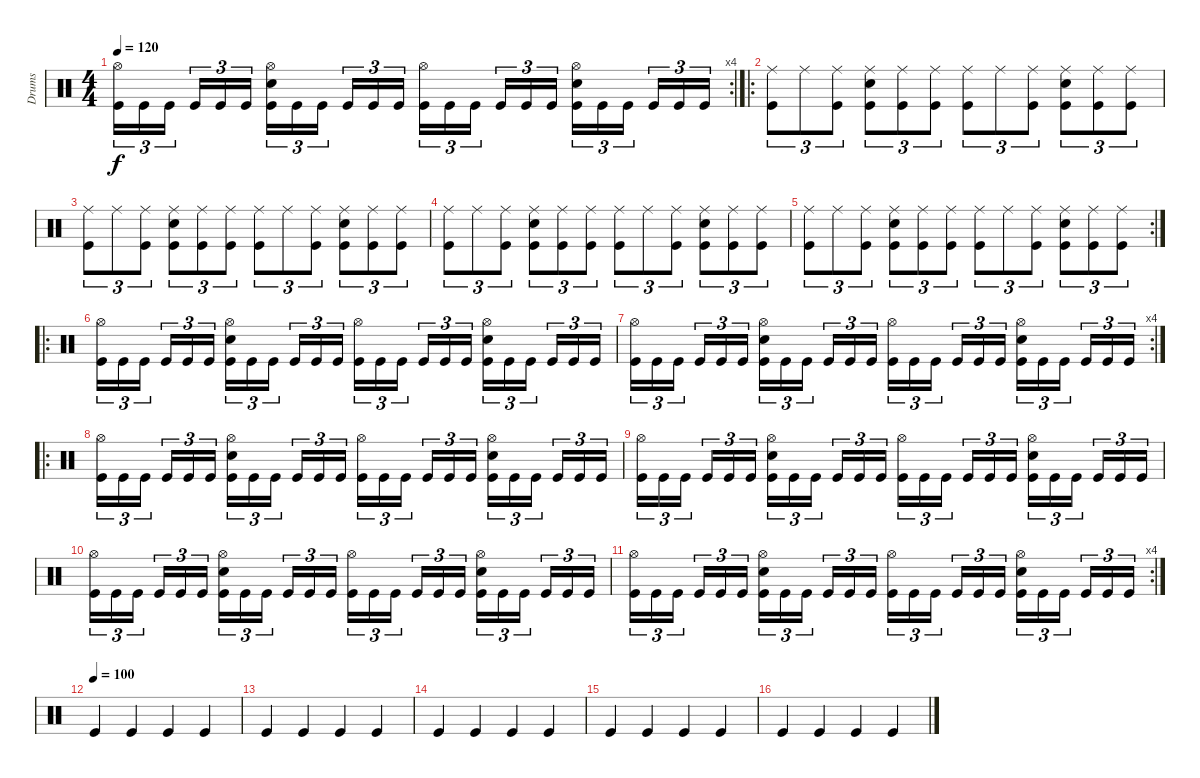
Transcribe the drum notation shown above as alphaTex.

\track ("Drums" "Drums") {instrument percussion}
\staff {score}
\articulation defaults
\rc 4
\ts (4 4)
\tempo 120
\clef neutral
\ks c
("Hi-Hat (open)" "Kick (hit)").16{tu (3 2) dy f} "Kick (hit)".16{tu (3 2)} "Kick (hit)".16{tu (3 2) beam splitsecondary} "Kick (hit)".16{tu (3 2)} "Kick (hit)".16{tu (3 2)} "Kick (hit)".16{tu (3 2)} ("Snare (hit) 2" "Hi-Hat (open)" "Kick (hit)").16{tu (3 2)} "Kick (hit)".16{tu (3 2)} "Kick (hit)".16{tu (3 2) beam splitsecondary} "Kick (hit)".16{tu (3 2)} "Kick (hit)".16{tu (3 2)} "Kick (hit)".16{tu (3 2)} ("Hi-Hat (open)" "Kick (hit)").16{tu (3 2)} "Kick (hit)".16{tu (3 2)} "Kick (hit)".16{tu (3 2) beam splitsecondary} "Kick (hit)".16{tu (3 2)} "Kick (hit)".16{tu (3 2)} "Kick (hit)".16{tu (3 2)} ("Snare (hit) 2" "Hi-Hat (open)" "Kick (hit)").16{tu (3 2)} "Kick (hit)".16{tu (3 2)} "Kick (hit)".16{tu (3 2) beam splitsecondary} "Kick (hit)".16{tu (3 2)} "Kick (hit)".16{tu (3 2)} "Kick (hit)".16{tu (3 2)} |
\ro
("Kick (hit)" "Ride (middle)").8{tu (3 2)} "Ride (middle)".8{tu (3 2)} ("Kick (hit)" "Ride (middle)").8{tu (3 2)} ("Snare (hit) 2" "Kick (hit)" "Ride (middle)").8{tu (3 2)} ("Kick (hit)" "Ride (middle)").8{tu (3 2)} ("Kick (hit)" "Ride (middle)").8{tu (3 2)} ("Kick (hit)" "Ride (middle)").8{tu (3 2)} "Ride (middle)".8{tu (3 2)} ("Kick (hit)" "Ride (middle)").8{tu (3 2)} ("Snare (hit) 2" "Kick (hit)" "Ride (middle)").8{tu (3 2)} ("Kick (hit)" "Ride (middle)").8{tu (3 2)} ("Kick (hit)" "Ride (middle)").8{tu (3 2)} |
("Kick (hit)" "Ride (middle)").8{tu (3 2)} "Ride (middle)".8{tu (3 2)} ("Kick (hit)" "Ride (middle)").8{tu (3 2)} ("Snare (hit) 2" "Kick (hit)" "Ride (middle)").8{tu (3 2)} ("Kick (hit)" "Ride (middle)").8{tu (3 2)} ("Kick (hit)" "Ride (middle)").8{tu (3 2)} ("Kick (hit)" "Ride (middle)").8{tu (3 2)} "Ride (middle)".8{tu (3 2)} ("Kick (hit)" "Ride (middle)").8{tu (3 2)} ("Snare (hit) 2" "Kick (hit)" "Ride (middle)").8{tu (3 2)} ("Kick (hit)" "Ride (middle)").8{tu (3 2)} ("Kick (hit)" "Ride (middle)").8{tu (3 2)} |
("Kick (hit)" "Ride (middle)").8{tu (3 2)} "Ride (middle)".8{tu (3 2)} ("Kick (hit)" "Ride (middle)").8{tu (3 2)} ("Snare (hit) 2" "Kick (hit)" "Ride (middle)").8{tu (3 2)} ("Kick (hit)" "Ride (middle)").8{tu (3 2)} ("Kick (hit)" "Ride (middle)").8{tu (3 2)} ("Kick (hit)" "Ride (middle)").8{tu (3 2)} "Ride (middle)".8{tu (3 2)} ("Kick (hit)" "Ride (middle)").8{tu (3 2)} ("Snare (hit) 2" "Kick (hit)" "Ride (middle)").8{tu (3 2)} ("Kick (hit)" "Ride (middle)").8{tu (3 2)} ("Kick (hit)" "Ride (middle)").8{tu (3 2)} |
\rc 2
("Kick (hit)" "Ride (middle)").8{tu (3 2)} "Ride (middle)".8{tu (3 2)} ("Kick (hit)" "Ride (middle)").8{tu (3 2)} ("Snare (hit) 2" "Kick (hit)" "Ride (middle)").8{tu (3 2)} ("Kick (hit)" "Ride (middle)").8{tu (3 2)} ("Kick (hit)" "Ride (middle)").8{tu (3 2)} ("Kick (hit)" "Ride (middle)").8{tu (3 2)} "Ride (middle)".8{tu (3 2)} ("Kick (hit)" "Ride (middle)").8{tu (3 2)} ("Snare (hit) 2" "Kick (hit)" "Ride (middle)").8{tu (3 2)} ("Kick (hit)" "Ride (middle)").8{tu (3 2)} ("Kick (hit)" "Ride (middle)").8{tu (3 2)} |
\ro
("Hi-Hat (open)" "Kick (hit)").16{tu (3 2)} "Kick (hit)".16{tu (3 2)} "Kick (hit)".16{tu (3 2) beam splitsecondary} "Kick (hit)".16{tu (3 2)} "Kick (hit)".16{tu (3 2)} "Kick (hit)".16{tu (3 2)} ("Snare (hit) 2" "Hi-Hat (open)" "Kick (hit)").16{tu (3 2)} "Kick (hit)".16{tu (3 2)} "Kick (hit)".16{tu (3 2) beam splitsecondary} "Kick (hit)".16{tu (3 2)} "Kick (hit)".16{tu (3 2)} "Kick (hit)".16{tu (3 2)} ("Hi-Hat (open)" "Kick (hit)").16{tu (3 2)} "Kick (hit)".16{tu (3 2)} "Kick (hit)".16{tu (3 2) beam splitsecondary} "Kick (hit)".16{tu (3 2)} "Kick (hit)".16{tu (3 2)} "Kick (hit)".16{tu (3 2)} ("Snare (hit) 2" "Hi-Hat (open)" "Kick (hit)").16{tu (3 2)} "Kick (hit)".16{tu (3 2)} "Kick (hit)".16{tu (3 2) beam splitsecondary} "Kick (hit)".16{tu (3 2)} "Kick (hit)".16{tu (3 2)} "Kick (hit)".16{tu (3 2)} |
\rc 4
("Hi-Hat (open)" "Kick (hit)").16{tu (3 2)} "Kick (hit)".16{tu (3 2)} "Kick (hit)".16{tu (3 2) beam splitsecondary} "Kick (hit)".16{tu (3 2)} "Kick (hit)".16{tu (3 2)} "Kick (hit)".16{tu (3 2)} ("Snare (hit) 2" "Hi-Hat (open)" "Kick (hit)").16{tu (3 2)} "Kick (hit)".16{tu (3 2)} "Kick (hit)".16{tu (3 2) beam splitsecondary} "Kick (hit)".16{tu (3 2)} "Kick (hit)".16{tu (3 2)} "Kick (hit)".16{tu (3 2)} ("Hi-Hat (open)" "Kick (hit)").16{tu (3 2)} "Kick (hit)".16{tu (3 2)} "Kick (hit)".16{tu (3 2) beam splitsecondary} "Kick (hit)".16{tu (3 2)} "Kick (hit)".16{tu (3 2)} "Kick (hit)".16{tu (3 2)} ("Snare (hit) 2" "Hi-Hat (open)" "Kick (hit)").16{tu (3 2)} "Kick (hit)".16{tu (3 2)} "Kick (hit)".16{tu (3 2) beam splitsecondary} "Kick (hit)".16{tu (3 2)} "Kick (hit)".16{tu (3 2)} "Kick (hit)".16{tu (3 2)} |
\ro
("Hi-Hat (open)" "Kick (hit)").16{tu (3 2)} "Kick (hit)".16{tu (3 2)} "Kick (hit)".16{tu (3 2) beam splitsecondary} "Kick (hit)".16{tu (3 2)} "Kick (hit)".16{tu (3 2)} "Kick (hit)".16{tu (3 2)} ("Snare (hit) 2" "Hi-Hat (open)" "Kick (hit)").16{tu (3 2)} "Kick (hit)".16{tu (3 2)} "Kick (hit)".16{tu (3 2) beam splitsecondary} "Kick (hit)".16{tu (3 2)} "Kick (hit)".16{tu (3 2)} "Kick (hit)".16{tu (3 2)} ("Hi-Hat (open)" "Kick (hit)").16{tu (3 2)} "Kick (hit)".16{tu (3 2)} "Kick (hit)".16{tu (3 2) beam splitsecondary} "Kick (hit)".16{tu (3 2)} "Kick (hit)".16{tu (3 2)} "Kick (hit)".16{tu (3 2)} ("Snare (hit) 2" "Hi-Hat (open)" "Kick (hit)").16{tu (3 2)} "Kick (hit)".16{tu (3 2)} "Kick (hit)".16{tu (3 2) beam splitsecondary} "Kick (hit)".16{tu (3 2)} "Kick (hit)".16{tu (3 2)} "Kick (hit)".16{tu (3 2)} |
("Hi-Hat (open)" "Kick (hit)").16{tu (3 2)} "Kick (hit)".16{tu (3 2)} "Kick (hit)".16{tu (3 2) beam splitsecondary} "Kick (hit)".16{tu (3 2)} "Kick (hit)".16{tu (3 2)} "Kick (hit)".16{tu (3 2)} ("Snare (hit) 2" "Hi-Hat (open)" "Kick (hit)").16{tu (3 2)} "Kick (hit)".16{tu (3 2)} "Kick (hit)".16{tu (3 2) beam splitsecondary} "Kick (hit)".16{tu (3 2)} "Kick (hit)".16{tu (3 2)} "Kick (hit)".16{tu (3 2)} ("Hi-Hat (open)" "Kick (hit)").16{tu (3 2)} "Kick (hit)".16{tu (3 2)} "Kick (hit)".16{tu (3 2) beam splitsecondary} "Kick (hit)".16{tu (3 2)} "Kick (hit)".16{tu (3 2)} "Kick (hit)".16{tu (3 2)} ("Snare (hit) 2" "Hi-Hat (open)" "Kick (hit)").16{tu (3 2)} "Kick (hit)".16{tu (3 2)} "Kick (hit)".16{tu (3 2) beam splitsecondary} "Kick (hit)".16{tu (3 2)} "Kick (hit)".16{tu (3 2)} "Kick (hit)".16{tu (3 2)} |
("Hi-Hat (open)" "Kick (hit)").16{tu (3 2)} "Kick (hit)".16{tu (3 2)} "Kick (hit)".16{tu (3 2) beam splitsecondary} "Kick (hit)".16{tu (3 2)} "Kick (hit)".16{tu (3 2)} "Kick (hit)".16{tu (3 2)} ("Snare (hit) 2" "Hi-Hat (open)" "Kick (hit)").16{tu (3 2)} "Kick (hit)".16{tu (3 2)} "Kick (hit)".16{tu (3 2) beam splitsecondary} "Kick (hit)".16{tu (3 2)} "Kick (hit)".16{tu (3 2)} "Kick (hit)".16{tu (3 2)} ("Hi-Hat (open)" "Kick (hit)").16{tu (3 2)} "Kick (hit)".16{tu (3 2)} "Kick (hit)".16{tu (3 2) beam splitsecondary} "Kick (hit)".16{tu (3 2)} "Kick (hit)".16{tu (3 2)} "Kick (hit)".16{tu (3 2)} ("Snare (hit) 2" "Hi-Hat (open)" "Kick (hit)").16{tu (3 2)} "Kick (hit)".16{tu (3 2)} "Kick (hit)".16{tu (3 2) beam splitsecondary} "Kick (hit)".16{tu (3 2)} "Kick (hit)".16{tu (3 2)} "Kick (hit)".16{tu (3 2)} |
\rc 4
("Hi-Hat (open)" "Kick (hit)").16{tu (3 2)} "Kick (hit)".16{tu (3 2)} "Kick (hit)".16{tu (3 2) beam splitsecondary} "Kick (hit)".16{tu (3 2)} "Kick (hit)".16{tu (3 2)} "Kick (hit)".16{tu (3 2)} ("Snare (hit) 2" "Hi-Hat (open)" "Kick (hit)").16{tu (3 2)} "Kick (hit)".16{tu (3 2)} "Kick (hit)".16{tu (3 2) beam splitsecondary} "Kick (hit)".16{tu (3 2)} "Kick (hit)".16{tu (3 2)} "Kick (hit)".16{tu (3 2)} ("Hi-Hat (open)" "Kick (hit)").16{tu (3 2)} "Kick (hit)".16{tu (3 2)} "Kick (hit)".16{tu (3 2) beam splitsecondary} "Kick (hit)".16{tu (3 2)} "Kick (hit)".16{tu (3 2)} "Kick (hit)".16{tu (3 2)} ("Snare (hit) 2" "Hi-Hat (open)" "Kick (hit)").16{tu (3 2)} "Kick (hit)".16{tu (3 2)} "Kick (hit)".16{tu (3 2) beam splitsecondary} "Kick (hit)".16{tu (3 2)} "Kick (hit)".16{tu (3 2)} "Kick (hit)".16{tu (3 2)} |
\tempo (100)
"Kick (hit)".4 "Kick (hit)".4 "Kick (hit)".4 "Kick (hit)".4 |
"Kick (hit)".4 "Kick (hit)".4 "Kick (hit)".4 "Kick (hit)".4 |
"Kick (hit)".4 "Kick (hit)".4 "Kick (hit)".4 "Kick (hit)".4 |
"Kick (hit)".4 "Kick (hit)".4 "Kick (hit)".4 "Kick (hit)".4 |
"Kick (hit)".4 "Kick (hit)".4 "Kick (hit)".4 "Kick (hit)".4
